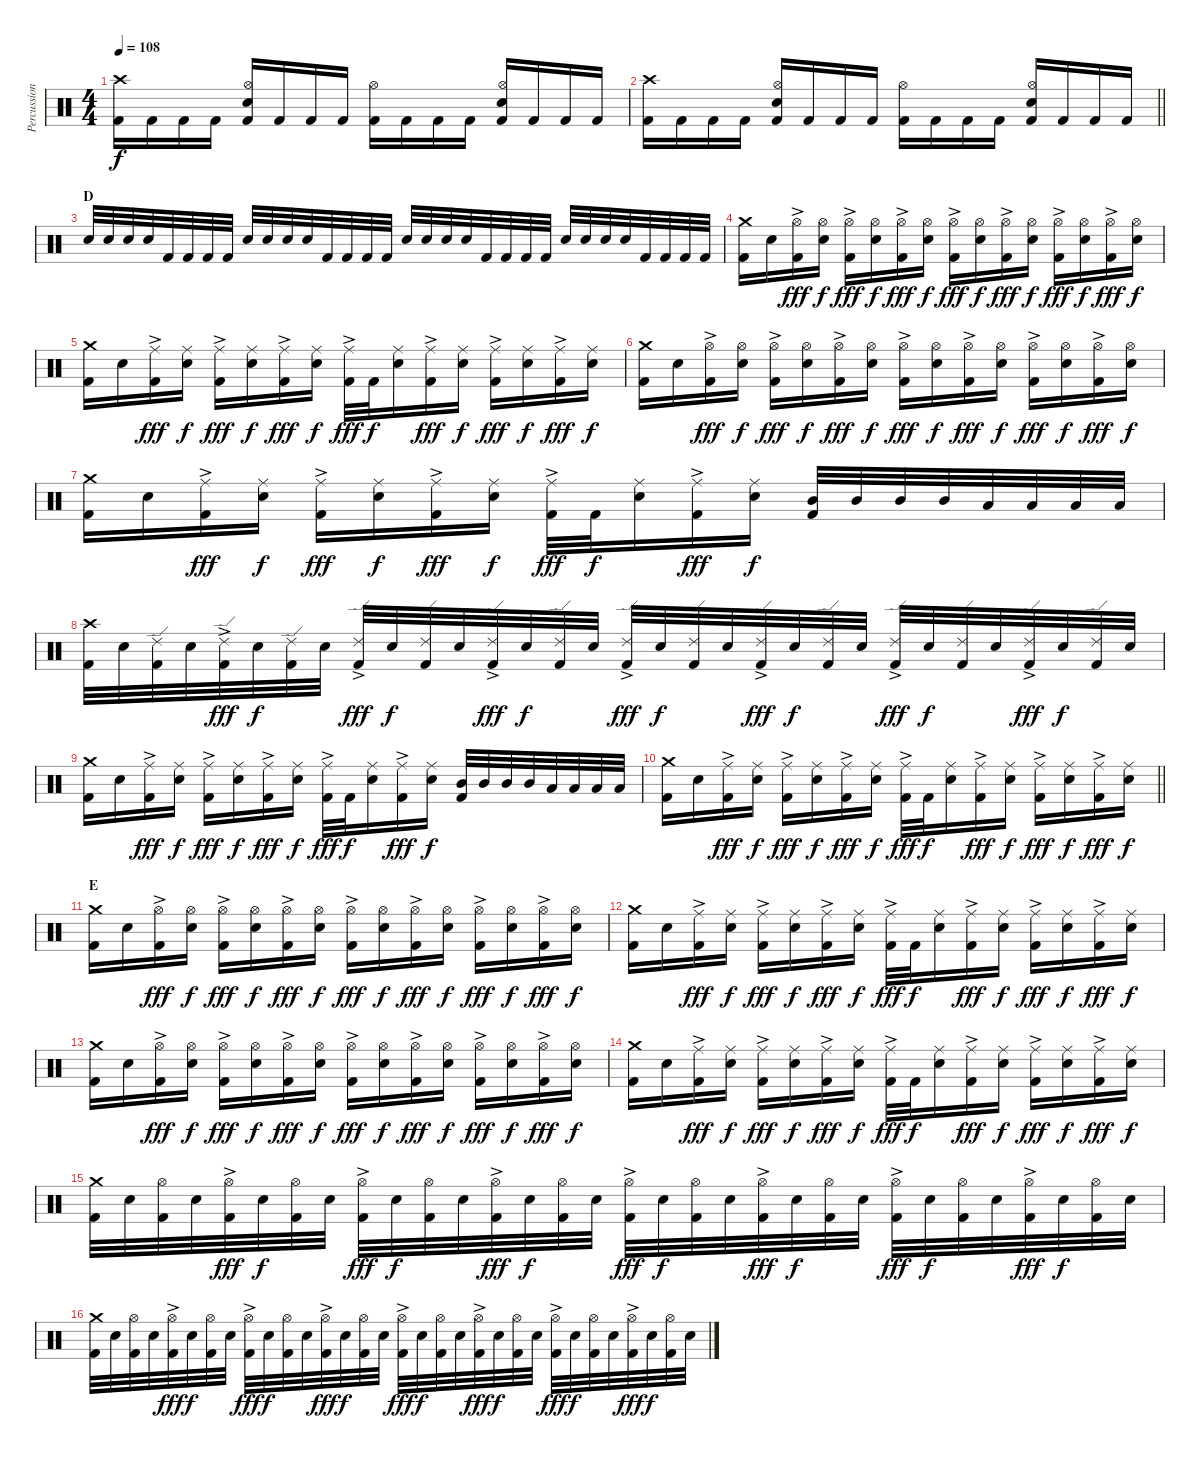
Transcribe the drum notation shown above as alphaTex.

\track ("Percussion" "Percussion") {instrument percussion}
\staff {score}
\articulation defaults
\ts (4 4)
\tempo 108
\clef neutral
\ks c
("Crash high (hit)" "Kick (hit) 2").16{dy f} "Kick (hit) 2".16 "Kick (hit) 2".16 "Kick (hit) 2".16 ("Hi-Hat (open)" "Electric Snare (hit)" "Kick (hit) 2").16 "Kick (hit) 2".16 "Kick (hit) 2".16 "Kick (hit) 2".16 ("Hi-Hat (open)" "Kick (hit) 2").16 "Kick (hit) 2".16 "Kick (hit) 2".16 "Kick (hit) 2".16 ("Hi-Hat (open)" "Electric Snare (hit)" "Kick (hit) 2").16 "Kick (hit) 2".16 "Kick (hit) 2".16 "Kick (hit) 2".16 |
\barLineRight lightlight
("Crash high (hit)" "Kick (hit) 2").16 "Kick (hit) 2".16 "Kick (hit) 2".16 "Kick (hit) 2".16 ("Hi-Hat (open)" "Electric Snare (hit)" "Kick (hit) 2").16 "Kick (hit) 2".16 "Kick (hit) 2".16 "Kick (hit) 2".16 ("Hi-Hat (open)" "Kick (hit) 2").16 "Kick (hit) 2".16 "Kick (hit) 2".16 "Kick (hit) 2".16 ("Hi-Hat (open)" "Electric Snare (hit)" "Kick (hit) 2").16 "Kick (hit) 2".16 "Kick (hit) 2".16 "Kick (hit) 2".16 |
\section ("" "D")
"Electric Snare (hit)".32 "Electric Snare (hit)".32 "Electric Snare (hit)".32 "Electric Snare (hit)".32 "Kick (hit) 2".32 "Kick (hit) 2".32 "Kick (hit) 2".32 "Kick (hit) 2".32 "Electric Snare (hit)".32 "Electric Snare (hit)".32 "Electric Snare (hit)".32 "Electric Snare (hit)".32 "Kick (hit) 2".32 "Kick (hit) 2".32 "Kick (hit) 2".32 "Kick (hit) 2".32 "Electric Snare (hit)".32 "Electric Snare (hit)".32 "Electric Snare (hit)".32 "Electric Snare (hit)".32 "Kick (hit) 2".32 "Kick (hit) 2".32 "Kick (hit) 2".32 "Kick (hit) 2".32 "Electric Snare (hit)".32 "Electric Snare (hit)".32 "Electric Snare (hit)".32 "Electric Snare (hit)".32 "Kick (hit) 2".32 "Kick (hit) 2".32 "Kick (hit) 2".32 "Kick (hit) 2".32 |
("Crash medium (hit)" "Kick (hit) 2").16 "Electric Snare (hit)".16 ("Hi-Hat (open)"{ac} "Kick (hit) 2").16{dy fff} ("Hi-Hat (open)" "Electric Snare (hit)").16{dy f} ("Hi-Hat (open)"{ac} "Kick (hit) 2").16{dy fff} ("Hi-Hat (open)" "Electric Snare (hit)").16{dy f} ("Hi-Hat (open)"{ac} "Kick (hit) 2").16{dy fff} ("Hi-Hat (open)" "Electric Snare (hit)").16{dy f} ("Hi-Hat (open)"{ac} "Kick (hit) 2").16{dy fff} ("Hi-Hat (open)" "Electric Snare (hit)").16{dy f} ("Hi-Hat (open)"{ac} "Kick (hit) 2").16{dy fff} ("Hi-Hat (open)" "Electric Snare (hit)").16{dy f} ("Hi-Hat (open)"{ac} "Kick (hit) 2").16{dy fff} ("Hi-Hat (open)" "Electric Snare (hit)").16{dy f} ("Hi-Hat (open)"{ac} "Kick (hit) 2").16{dy fff} ("Hi-Hat (open)" "Electric Snare (hit)").16{dy f} |
("Crash medium (hit)" "Kick (hit) 2").16 "Electric Snare (hit)".16 ("Ride (middle)"{ac} "Kick (hit) 2").16{dy fff} ("Ride (middle)" "Electric Snare (hit)").16{dy f} ("Ride (middle)"{ac} "Kick (hit) 2").16{dy fff} ("Ride (middle)" "Electric Snare (hit)").16{dy f} ("Ride (middle)"{ac} "Kick (hit) 2").16{dy fff} ("Ride (middle)" "Electric Snare (hit)").16{dy f} ("Ride (middle)"{ac} "Kick (hit) 2").32{dy fff} "Kick (hit) 2".32{dy f} ("Ride (middle)" "Electric Snare (hit)").16 ("Ride (middle)"{ac} "Kick (hit) 2").16{dy fff} ("Ride (middle)" "Electric Snare (hit)").16{dy f} ("Ride (middle)"{ac} "Kick (hit) 2").16{dy fff} ("Ride (middle)" "Electric Snare (hit)").16{dy f} ("Ride (middle)"{ac} "Kick (hit) 2").16{dy fff} ("Ride (middle)" "Electric Snare (hit)").16{dy f} |
("Crash medium (hit)" "Kick (hit) 2").16 "Electric Snare (hit)".16 ("Hi-Hat (open)"{ac} "Kick (hit) 2").16{dy fff} ("Hi-Hat (open)" "Electric Snare (hit)").16{dy f} ("Hi-Hat (open)"{ac} "Kick (hit) 2").16{dy fff} ("Hi-Hat (open)" "Electric Snare (hit)").16{dy f} ("Hi-Hat (open)"{ac} "Kick (hit) 2").16{dy fff} ("Hi-Hat (open)" "Electric Snare (hit)").16{dy f} ("Hi-Hat (open)"{ac} "Kick (hit) 2").16{dy fff} ("Hi-Hat (open)" "Electric Snare (hit)").16{dy f} ("Hi-Hat (open)"{ac} "Kick (hit) 2").16{dy fff} ("Hi-Hat (open)" "Electric Snare (hit)").16{dy f} ("Hi-Hat (open)"{ac} "Kick (hit) 2").16{dy fff} ("Hi-Hat (open)" "Electric Snare (hit)").16{dy f} ("Hi-Hat (open)"{ac} "Kick (hit) 2").16{dy fff} ("Hi-Hat (open)" "Electric Snare (hit)").16{dy f} |
("Crash medium (hit)" "Kick (hit) 2").16 "Electric Snare (hit)".16 ("Ride (middle)"{ac} "Kick (hit) 2").16{dy fff} ("Ride (middle)" "Electric Snare (hit)").16{dy f} ("Ride (middle)"{ac} "Kick (hit) 2").16{dy fff} ("Ride (middle)" "Electric Snare (hit)").16{dy f} ("Ride (middle)"{ac} "Kick (hit) 2").16{dy fff} ("Ride (middle)" "Electric Snare (hit)").16{dy f} ("Ride (middle)"{ac} "Kick (hit) 2").32{dy fff} "Kick (hit) 2".32{dy f} ("Ride (middle)" "Electric Snare (hit)").16 ("Ride (middle)"{ac} "Kick (hit) 2").16{dy fff} ("Ride (middle)" "Electric Snare (hit)").16{dy f} ("Mid Tom (hit)" "Kick (hit) 2").32 "Mid Tom (hit)".32 "Mid Tom (hit)".32 "Mid Tom (hit)".32 "Low Tom (hit)".32 "Low Tom (hit)".32 "Low Tom (hit)".32 "Low Tom (hit)".32 |
("Crash high (hit)" "Kick (hit) 2").32 "Electric Snare (hit)".32 ("Ride (edge) 2" "Kick (hit) 2").32 "Electric Snare (hit)".32 ("Ride (edge) 2"{ac} "Kick (hit) 2").32{dy fff} "Electric Snare (hit)".32{dy f} ("Ride (edge) 2" "Kick (hit) 2").32 "Electric Snare (hit)".32 ("Ride (edge) 2"{ac} "Kick (hit) 2").32{dy fff} "Electric Snare (hit)".32{dy f} ("Ride (edge) 2" "Kick (hit) 2").32 "Electric Snare (hit)".32 ("Ride (edge) 2"{ac} "Kick (hit) 2").32{dy fff} "Electric Snare (hit)".32{dy f} ("Ride (edge) 2" "Kick (hit) 2").32 "Electric Snare (hit)".32 ("Ride (edge) 2"{ac} "Kick (hit) 2").32{dy fff} "Electric Snare (hit)".32{dy f} ("Ride (edge) 2" "Kick (hit) 2").32 "Electric Snare (hit)".32 ("Ride (edge) 2"{ac} "Kick (hit) 2").32{dy fff} "Electric Snare (hit)".32{dy f} ("Ride (edge) 2" "Kick (hit) 2").32 "Electric Snare (hit)".32 ("Ride (edge) 2"{ac} "Kick (hit) 2").32{dy fff} "Electric Snare (hit)".32{dy f} ("Ride (edge) 2" "Kick (hit) 2").32 "Electric Snare (hit)".32 ("Ride (edge) 2"{ac} "Kick (hit) 2").32{dy fff} "Electric Snare (hit)".32{dy f} ("Ride (edge) 2" "Kick (hit) 2").32 "Electric Snare (hit)".32 |
("Crash medium (hit)" "Kick (hit) 2").16 "Electric Snare (hit)".16 ("Ride (middle)"{ac} "Kick (hit) 2").16{dy fff} ("Ride (middle)" "Electric Snare (hit)").16{dy f} ("Ride (middle)"{ac} "Kick (hit) 2").16{dy fff} ("Ride (middle)" "Electric Snare (hit)").16{dy f} ("Ride (middle)"{ac} "Kick (hit) 2").16{dy fff} ("Ride (middle)" "Electric Snare (hit)").16{dy f} ("Ride (middle)"{ac} "Kick (hit) 2").32{dy fff} "Kick (hit) 2".32{dy f} ("Ride (middle)" "Electric Snare (hit)").16 ("Ride (middle)"{ac} "Kick (hit) 2").16{dy fff} ("Ride (middle)" "Electric Snare (hit)").16{dy f} ("Mid Tom (hit)" "Kick (hit) 2").32 "Mid Tom (hit)".32 "Mid Tom (hit)".32 "Mid Tom (hit)".32 "Low Tom (hit)".32 "Low Tom (hit)".32 "Low Tom (hit)".32 "Low Tom (hit)".32 |
\barLineRight lightlight
("Crash medium (hit)" "Kick (hit) 2").16 "Electric Snare (hit)".16 ("Ride (middle)"{ac} "Kick (hit) 2").16{dy fff} ("Ride (middle)" "Electric Snare (hit)").16{dy f} ("Ride (middle)"{ac} "Kick (hit) 2").16{dy fff} ("Ride (middle)" "Electric Snare (hit)").16{dy f} ("Ride (middle)"{ac} "Kick (hit) 2").16{dy fff} ("Ride (middle)" "Electric Snare (hit)").16{dy f} ("Ride (middle)"{ac} "Kick (hit) 2").32{dy fff} "Kick (hit) 2".32{dy f} ("Ride (middle)" "Electric Snare (hit)").16 ("Ride (middle)"{ac} "Kick (hit) 2").16{dy fff} ("Ride (middle)" "Electric Snare (hit)").16{dy f} ("Ride (middle)"{ac} "Kick (hit) 2").16{dy fff} ("Ride (middle)" "Electric Snare (hit)").16{dy f} ("Ride (middle)"{ac} "Kick (hit) 2").16{dy fff} ("Ride (middle)" "Electric Snare (hit)").16{dy f} |
\section ("" "E")
("Crash medium (hit)" "Kick (hit) 2").16 "Electric Snare (hit)".16 ("Hi-Hat (open)"{ac} "Kick (hit) 2").16{dy fff} ("Hi-Hat (open)" "Electric Snare (hit)").16{dy f} ("Hi-Hat (open)"{ac} "Kick (hit) 2").16{dy fff} ("Hi-Hat (open)" "Electric Snare (hit)").16{dy f} ("Hi-Hat (open)"{ac} "Kick (hit) 2").16{dy fff} ("Hi-Hat (open)" "Electric Snare (hit)").16{dy f} ("Hi-Hat (open)"{ac} "Kick (hit) 2").16{dy fff} ("Hi-Hat (open)" "Electric Snare (hit)").16{dy f} ("Hi-Hat (open)"{ac} "Kick (hit) 2").16{dy fff} ("Hi-Hat (open)" "Electric Snare (hit)").16{dy f} ("Hi-Hat (open)"{ac} "Kick (hit) 2").16{dy fff} ("Hi-Hat (open)" "Electric Snare (hit)").16{dy f} ("Hi-Hat (open)"{ac} "Kick (hit) 2").16{dy fff} ("Hi-Hat (open)" "Electric Snare (hit)").16{dy f} |
("Crash medium (hit)" "Kick (hit) 2").16 "Electric Snare (hit)".16 ("Ride (middle)"{ac} "Kick (hit) 2").16{dy fff} ("Ride (middle)" "Electric Snare (hit)").16{dy f} ("Ride (middle)"{ac} "Kick (hit) 2").16{dy fff} ("Ride (middle)" "Electric Snare (hit)").16{dy f} ("Ride (middle)"{ac} "Kick (hit) 2").16{dy fff} ("Ride (middle)" "Electric Snare (hit)").16{dy f} ("Ride (middle)"{ac} "Kick (hit) 2").32{dy fff} "Kick (hit) 2".32{dy f} ("Ride (middle)" "Electric Snare (hit)").16 ("Ride (middle)"{ac} "Kick (hit) 2").16{dy fff} ("Ride (middle)" "Electric Snare (hit)").16{dy f} ("Ride (middle)"{ac} "Kick (hit) 2").16{dy fff} ("Ride (middle)" "Electric Snare (hit)").16{dy f} ("Ride (middle)"{ac} "Kick (hit) 2").16{dy fff} ("Ride (middle)" "Electric Snare (hit)").16{dy f} |
("Crash medium (hit)" "Kick (hit) 2").16 "Electric Snare (hit)".16 ("Hi-Hat (open)"{ac} "Kick (hit) 2").16{dy fff} ("Hi-Hat (open)" "Electric Snare (hit)").16{dy f} ("Hi-Hat (open)"{ac} "Kick (hit) 2").16{dy fff} ("Hi-Hat (open)" "Electric Snare (hit)").16{dy f} ("Hi-Hat (open)"{ac} "Kick (hit) 2").16{dy fff} ("Hi-Hat (open)" "Electric Snare (hit)").16{dy f} ("Hi-Hat (open)"{ac} "Kick (hit) 2").16{dy fff} ("Hi-Hat (open)" "Electric Snare (hit)").16{dy f} ("Hi-Hat (open)"{ac} "Kick (hit) 2").16{dy fff} ("Hi-Hat (open)" "Electric Snare (hit)").16{dy f} ("Hi-Hat (open)"{ac} "Kick (hit) 2").16{dy fff} ("Hi-Hat (open)" "Electric Snare (hit)").16{dy f} ("Hi-Hat (open)"{ac} "Kick (hit) 2").16{dy fff} ("Hi-Hat (open)" "Electric Snare (hit)").16{dy f} |
("Crash medium (hit)" "Kick (hit) 2").16 "Electric Snare (hit)".16 ("Ride (middle)"{ac} "Kick (hit) 2").16{dy fff} ("Ride (middle)" "Electric Snare (hit)").16{dy f} ("Ride (middle)"{ac} "Kick (hit) 2").16{dy fff} ("Ride (middle)" "Electric Snare (hit)").16{dy f} ("Ride (middle)"{ac} "Kick (hit) 2").16{dy fff} ("Ride (middle)" "Electric Snare (hit)").16{dy f} ("Ride (middle)"{ac} "Kick (hit) 2").32{dy fff} "Kick (hit) 2".32{dy f} ("Ride (middle)" "Electric Snare (hit)").16 ("Ride (middle)"{ac} "Kick (hit) 2").16{dy fff} ("Ride (middle)" "Electric Snare (hit)").16{dy f} ("Ride (middle)"{ac} "Kick (hit) 2").16{dy fff} ("Ride (middle)" "Electric Snare (hit)").16{dy f} ("Ride (middle)"{ac} "Kick (hit) 2").16{dy fff} ("Ride (middle)" "Electric Snare (hit)").16{dy f} |
("Crash medium (hit)" "Kick (hit) 2").32 "Electric Snare (hit)".32 ("Hi-Hat (open)" "Kick (hit) 2").32 "Electric Snare (hit)".32 ("Hi-Hat (open)"{ac} "Kick (hit) 2").32{dy fff} "Electric Snare (hit)".32{dy f} ("Hi-Hat (open)" "Kick (hit) 2").32 "Electric Snare (hit)".32 ("Hi-Hat (open)"{ac} "Kick (hit) 2").32{dy fff} "Electric Snare (hit)".32{dy f} ("Hi-Hat (open)" "Kick (hit) 2").32 "Electric Snare (hit)".32 ("Hi-Hat (open)"{ac} "Kick (hit) 2").32{dy fff} "Electric Snare (hit)".32{dy f} ("Hi-Hat (open)" "Kick (hit) 2").32 "Electric Snare (hit)".32 ("Hi-Hat (open)"{ac} "Kick (hit) 2").32{dy fff} "Electric Snare (hit)".32{dy f} ("Hi-Hat (open)" "Kick (hit) 2").32 "Electric Snare (hit)".32 ("Hi-Hat (open)"{ac} "Kick (hit) 2").32{dy fff} "Electric Snare (hit)".32{dy f} ("Hi-Hat (open)" "Kick (hit) 2").32 "Electric Snare (hit)".32 ("Hi-Hat (open)"{ac} "Kick (hit) 2").32{dy fff} "Electric Snare (hit)".32{dy f} ("Hi-Hat (open)" "Kick (hit) 2").32 "Electric Snare (hit)".32 ("Hi-Hat (open)"{ac} "Kick (hit) 2").32{dy fff} "Electric Snare (hit)".32{dy f} ("Hi-Hat (open)" "Kick (hit) 2").32 "Electric Snare (hit)".32 |
("Crash medium (hit)" "Kick (hit) 2").32 "Electric Snare (hit)".32 ("Hi-Hat (open)" "Kick (hit) 2").32 "Electric Snare (hit)".32 ("Hi-Hat (open)"{ac} "Kick (hit) 2").32{dy fff} "Electric Snare (hit)".32{dy f} ("Hi-Hat (open)" "Kick (hit) 2").32 "Electric Snare (hit)".32 ("Hi-Hat (open)"{ac} "Kick (hit) 2").32{dy fff} "Electric Snare (hit)".32{dy f} ("Hi-Hat (open)" "Kick (hit) 2").32 "Electric Snare (hit)".32 ("Hi-Hat (open)"{ac} "Kick (hit) 2").32{dy fff} "Electric Snare (hit)".32{dy f} ("Hi-Hat (open)" "Kick (hit) 2").32 "Electric Snare (hit)".32 ("Hi-Hat (open)"{ac} "Kick (hit) 2").32{dy fff} "Electric Snare (hit)".32{dy f} ("Hi-Hat (open)" "Kick (hit) 2").32 "Electric Snare (hit)".32 ("Hi-Hat (open)"{ac} "Kick (hit) 2").32{dy fff} "Electric Snare (hit)".32{dy f} ("Hi-Hat (open)" "Kick (hit) 2").32 "Electric Snare (hit)".32 ("Hi-Hat (open)"{ac} "Kick (hit) 2").32{dy fff} "Electric Snare (hit)".32{dy f} ("Hi-Hat (open)" "Kick (hit) 2").32 "Electric Snare (hit)".32 ("Hi-Hat (open)"{ac} "Kick (hit) 2").32{dy fff} "Electric Snare (hit)".32{dy f} ("Hi-Hat (open)" "Kick (hit) 2").32 "Electric Snare (hit)".32
